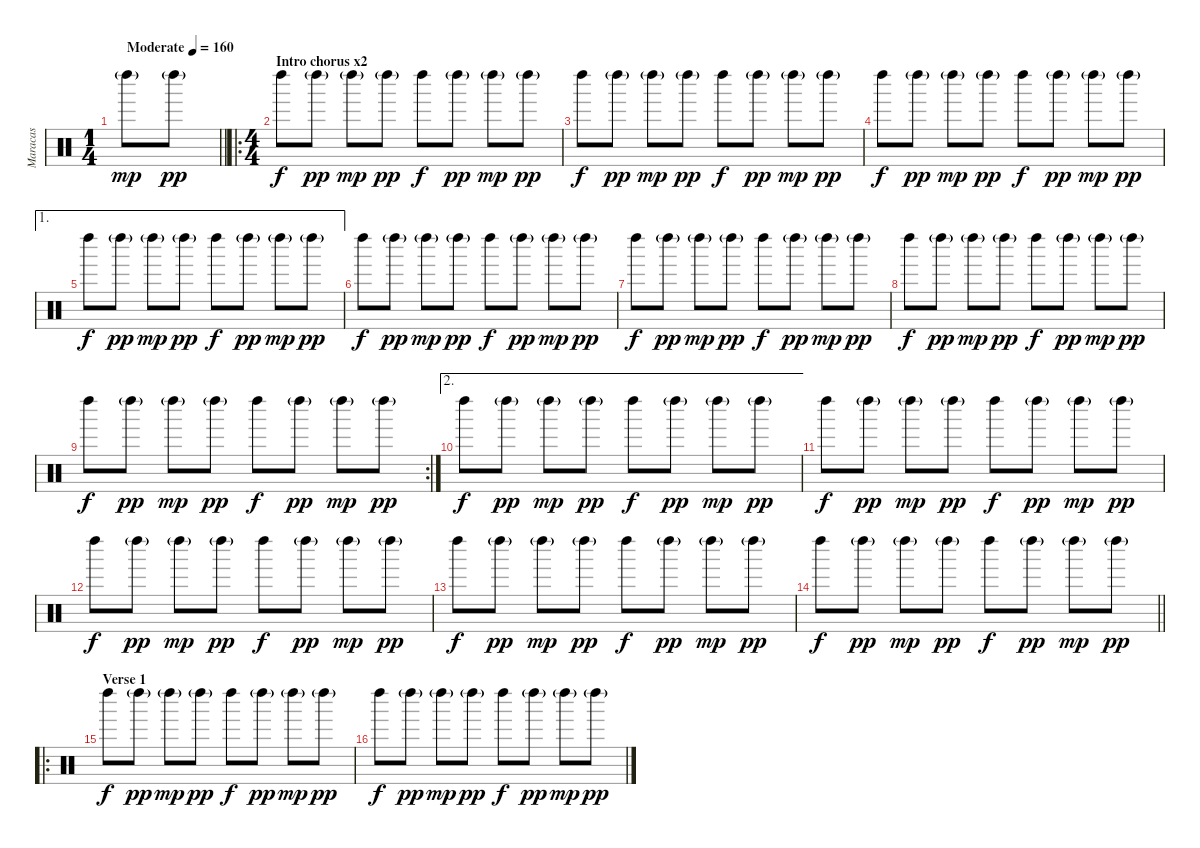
\track ("Maracas" "Maracas") {instrument percussion}
\staff {score}
\articulation defaults
\ts (1 4)
\tempo (160 "Moderate")
\clef neutral
\barLineRight lightlight
\ks c "Left Maraca (hit)"{g}.8{dy mp} "Left Maraca (hit)"{g}.8{dy pp}
|
\ro
\ts (4 4)
\section ("" "Intro chorus x2")
"Left Maraca (hit)".8{dy f} "Left Maraca (hit)"{g}.8{dy pp} "Left Maraca (hit)"{g}.8{dy mp} "Left Maraca (hit)"{g}.8{dy pp} "Left Maraca (hit)".8{dy f} "Left Maraca (hit)"{g}.8{dy pp} "Left Maraca (hit)"{g}.8{dy mp} "Left Maraca (hit)"{g}.8{dy pp} |
"Left Maraca (hit)".8{dy f} "Left Maraca (hit)"{g}.8{dy pp} "Left Maraca (hit)"{g}.8{dy mp} "Left Maraca (hit)"{g}.8{dy pp} "Left Maraca (hit)".8{dy f} "Left Maraca (hit)"{g}.8{dy pp} "Left Maraca (hit)"{g}.8{dy mp} "Left Maraca (hit)"{g}.8{dy pp} |
"Left Maraca (hit)".8{dy f} "Left Maraca (hit)"{g}.8{dy pp} "Left Maraca (hit)"{g}.8{dy mp} "Left Maraca (hit)"{g}.8{dy pp} "Left Maraca (hit)".8{dy f} "Left Maraca (hit)"{g}.8{dy pp} "Left Maraca (hit)"{g}.8{dy mp} "Left Maraca (hit)"{g}.8{dy pp} |
\ae 1 "Left Maraca (hit)".8{dy f} "Left Maraca (hit)"{g}.8{dy pp} "Left Maraca (hit)"{g}.8{dy mp} "Left Maraca (hit)"{g}.8{dy pp} "Left Maraca (hit)".8{dy f} "Left Maraca (hit)"{g}.8{dy pp} "Left Maraca (hit)"{g}.8{dy mp} "Left Maraca (hit)"{g}.8{dy pp}
|
"Left Maraca (hit)".8{dy f} "Left Maraca (hit)"{g}.8{dy pp} "Left Maraca (hit)"{g}.8{dy mp} "Left Maraca (hit)"{g}.8{dy pp} "Left Maraca (hit)".8{dy f} "Left Maraca (hit)"{g}.8{dy pp} "Left Maraca (hit)"{g}.8{dy mp} "Left Maraca (hit)"{g}.8{dy pp} |
"Left Maraca (hit)".8{dy f} "Left Maraca (hit)"{g}.8{dy pp} "Left Maraca (hit)"{g}.8{dy mp} "Left Maraca (hit)"{g}.8{dy pp} "Left Maraca (hit)".8{dy f} "Left Maraca (hit)"{g}.8{dy pp} "Left Maraca (hit)"{g}.8{dy mp} "Left Maraca (hit)"{g}.8{dy pp} |
"Left Maraca (hit)".8{dy f} "Left Maraca (hit)"{g}.8{dy pp} "Left Maraca (hit)"{g}.8{dy mp} "Left Maraca (hit)"{g}.8{dy pp} "Left Maraca (hit)".8{dy f} "Left Maraca (hit)"{g}.8{dy pp} "Left Maraca (hit)"{g}.8{dy mp} "Left Maraca (hit)"{g}.8{dy pp} |
\rc 2 "Left Maraca (hit)".8{dy f} "Left Maraca (hit)"{g}.8{dy pp} "Left Maraca (hit)"{g}.8{dy mp} "Left Maraca (hit)"{g}.8{dy pp} "Left Maraca (hit)".8{dy f} "Left Maraca (hit)"{g}.8{dy pp} "Left Maraca (hit)"{g}.8{dy mp} "Left Maraca (hit)"{g}.8{dy pp}
|
\ae 2 "Left Maraca (hit)".8{dy f} "Left Maraca (hit)"{g}.8{dy pp} "Left Maraca (hit)"{g}.8{dy mp} "Left Maraca (hit)"{g}.8{dy pp} "Left Maraca (hit)".8{dy f} "Left Maraca (hit)"{g}.8{dy pp} "Left Maraca (hit)"{g}.8{dy mp} "Left Maraca (hit)"{g}.8{dy pp}
|
"Left Maraca (hit)".8{dy f} "Left Maraca (hit)"{g}.8{dy pp} "Left Maraca (hit)"{g}.8{dy mp} "Left Maraca (hit)"{g}.8{dy pp} "Left Maraca (hit)".8{dy f} "Left Maraca (hit)"{g}.8{dy pp} "Left Maraca (hit)"{g}.8{dy mp} "Left Maraca (hit)"{g}.8{dy pp} |
"Left Maraca (hit)".8{dy f} "Left Maraca (hit)"{g}.8{dy pp} "Left Maraca (hit)"{g}.8{dy mp} "Left Maraca (hit)"{g}.8{dy pp} "Left Maraca (hit)".8{dy f} "Left Maraca (hit)"{g}.8{dy pp} "Left Maraca (hit)"{g}.8{dy mp} "Left Maraca (hit)"{g}.8{dy pp} |
"Left Maraca (hit)".8{dy f} "Left Maraca (hit)"{g}.8{dy pp} "Left Maraca (hit)"{g}.8{dy mp} "Left Maraca (hit)"{g}.8{dy pp} "Left Maraca (hit)".8{dy f} "Left Maraca (hit)"{g}.8{dy pp} "Left Maraca (hit)"{g}.8{dy mp} "Left Maraca (hit)"{g}.8{dy pp} |
\barLineRight lightlight "Left Maraca (hit)".8{dy f} "Left Maraca (hit)"{g}.8{dy pp} "Left Maraca (hit)"{g}.8{dy mp} "Left Maraca (hit)"{g}.8{dy pp} "Left Maraca (hit)".8{dy f} "Left Maraca (hit)"{g}.8{dy pp} "Left Maraca (hit)"{g}.8{dy mp} "Left Maraca (hit)"{g}.8{dy pp}
|
\ro
\section ("" "Verse 1")
"Left Maraca (hit)".8{dy f} "Left Maraca (hit)"{g}.8{dy pp} "Left Maraca (hit)"{g}.8{dy mp} "Left Maraca (hit)"{g}.8{dy pp} "Left Maraca (hit)".8{dy f} "Left Maraca (hit)"{g}.8{dy pp} "Left Maraca (hit)"{g}.8{dy mp} "Left Maraca (hit)"{g}.8{dy pp} |
"Left Maraca (hit)".8{dy f} "Left Maraca (hit)"{g}.8{dy pp} "Left Maraca (hit)"{g}.8{dy mp} "Left Maraca (hit)"{g}.8{dy pp} "Left Maraca (hit)".8{dy f} "Left Maraca (hit)"{g}.8{dy pp} "Left Maraca (hit)"{g}.8{dy mp} "Left Maraca (hit)"{g}.8{dy pp}
